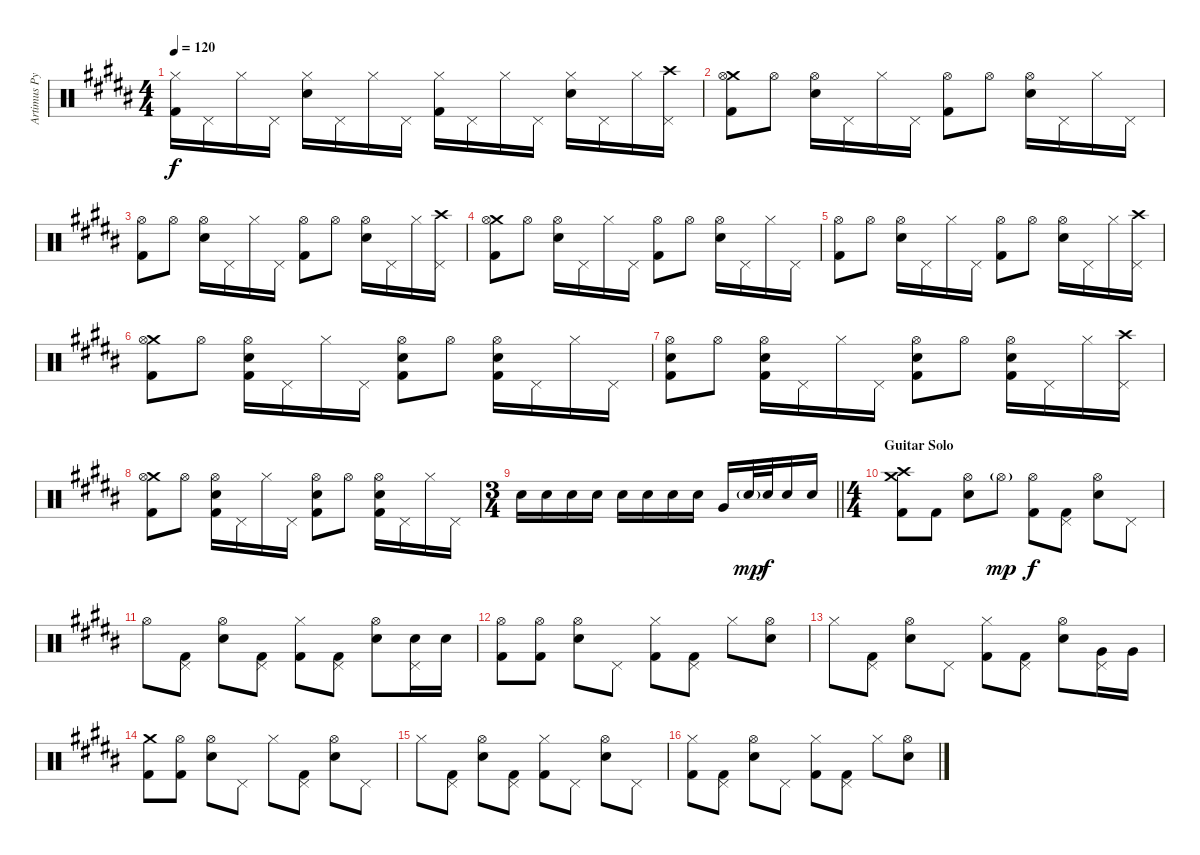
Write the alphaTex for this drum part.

\track ("Artimus Pyle - Drums" "Artimus Py") {instrument percussion}
\staff {score}
\articulation defaults
\ts (4 4)
\tempo 120
\clef neutral
\ks b
("Hi-Hat (closed)" "Kick (hit) 2").16{dy f} "Pedal Hi-Hat (hit)".16 "Hi-Hat (closed)".16 "Pedal Hi-Hat (hit)".16 ("Snare (hit) 2" "Hi-Hat (closed)").16 "Pedal Hi-Hat (hit)".16 "Hi-Hat (closed)".16 "Pedal Hi-Hat (hit)".16 ("Hi-Hat (closed)" "Kick (hit) 2").16 "Pedal Hi-Hat (hit)".16 "Hi-Hat (closed)".16 "Pedal Hi-Hat (hit)".16 ("Snare (hit) 2" "Hi-Hat (closed)").16 "Pedal Hi-Hat (hit)".16 "Hi-Hat (closed)".16 ("Crash high (hit)" "Pedal Hi-Hat (hit)").16 |
("Crash medium (hit)" "Hi-Hat (open)" "Kick (hit) 2").8 "Hi-Hat (open)".8 ("Snare (hit) 2" "Hi-Hat (open)").16 "Pedal Hi-Hat (hit)".16 "Hi-Hat (closed)".16 "Pedal Hi-Hat (hit)".16 ("Hi-Hat (open)" "Kick (hit) 2").8 "Hi-Hat (open)".8 ("Snare (hit) 2" "Hi-Hat (open)").16 "Pedal Hi-Hat (hit)".16 "Hi-Hat (closed)".16 "Pedal Hi-Hat (hit)".16 |
("Hi-Hat (open)" "Kick (hit) 2").8 "Hi-Hat (open)".8 ("Snare (hit) 2" "Hi-Hat (open)").16 "Pedal Hi-Hat (hit)".16 "Hi-Hat (closed)".16 "Pedal Hi-Hat (hit)".16 ("Hi-Hat (open)" "Kick (hit) 2").8 "Hi-Hat (open)".8 ("Snare (hit) 2" "Hi-Hat (open)").16 "Pedal Hi-Hat (hit)".16 "Hi-Hat (closed)".16 ("Crash high (hit)" "Pedal Hi-Hat (hit)").16 |
("Crash medium (hit)" "Hi-Hat (open)" "Kick (hit) 2").8 "Hi-Hat (open)".8 ("Snare (hit) 2" "Hi-Hat (open)").16 "Pedal Hi-Hat (hit)".16 "Hi-Hat (closed)".16 "Pedal Hi-Hat (hit)".16 ("Hi-Hat (open)" "Kick (hit) 2").8 "Hi-Hat (open)".8 ("Snare (hit) 2" "Hi-Hat (open)").16 "Pedal Hi-Hat (hit)".16 "Hi-Hat (closed)".16 "Pedal Hi-Hat (hit)".16 |
("Hi-Hat (open)" "Kick (hit) 2").8 "Hi-Hat (open)".8 ("Snare (hit) 2" "Hi-Hat (open)").16 "Pedal Hi-Hat (hit)".16 "Hi-Hat (closed)".16 "Pedal Hi-Hat (hit)".16 ("Hi-Hat (open)" "Kick (hit) 2").8 "Hi-Hat (open)".8 ("Snare (hit) 2" "Hi-Hat (open)").16 "Pedal Hi-Hat (hit)".16 "Hi-Hat (closed)".16 ("Crash high (hit)" "Pedal Hi-Hat (hit)").16 |
("Crash medium (hit)" "Hi-Hat (open)" "Kick (hit) 2").8 "Hi-Hat (open)".8 ("Snare (hit) 2" "Hi-Hat (open)" "Kick (hit) 2").16 "Pedal Hi-Hat (hit)".16 "Hi-Hat (closed)".16 "Pedal Hi-Hat (hit)".16 ("Snare (hit) 2" "Hi-Hat (open)" "Kick (hit) 2").8 "Hi-Hat (open)".8 ("Snare (hit) 2" "Hi-Hat (open)" "Kick (hit) 2").16 "Pedal Hi-Hat (hit)".16 "Hi-Hat (closed)".16 "Pedal Hi-Hat (hit)".16 |
("Snare (hit) 2" "Hi-Hat (open)" "Kick (hit) 2").8 "Hi-Hat (open)".8 ("Snare (hit) 2" "Hi-Hat (open)" "Kick (hit) 2").16 "Pedal Hi-Hat (hit)".16 "Hi-Hat (closed)".16 "Pedal Hi-Hat (hit)".16 ("Snare (hit) 2" "Hi-Hat (open)" "Kick (hit) 2").8 "Hi-Hat (open)".8 ("Snare (hit) 2" "Hi-Hat (open)" "Kick (hit) 2").16 "Pedal Hi-Hat (hit)".16 "Hi-Hat (closed)".16 ("Crash high (hit)" "Pedal Hi-Hat (hit)").16 |
("Crash medium (hit)" "Hi-Hat (open)" "Kick (hit) 2").8 "Hi-Hat (open)".8 ("Snare (hit) 2" "Hi-Hat (open)" "Kick (hit) 2").16 "Pedal Hi-Hat (hit)".16 "Hi-Hat (closed)".16 "Pedal Hi-Hat (hit)".16 ("Snare (hit) 2" "Hi-Hat (open)" "Kick (hit) 2").8 "Hi-Hat (open)".8 ("Snare (hit) 2" "Hi-Hat (open)" "Kick (hit) 2").16 "Pedal Hi-Hat (hit)".16 "Hi-Hat (closed)".16 "Pedal Hi-Hat (hit)".16 |
\ts (3 4)
\barLineRight lightlight "Snare (hit) 2".16 "Snare (hit) 2".16 "Snare (hit) 2".16 "Snare (hit) 2".16 "Snare (hit) 2".16 "Snare (hit) 2".16 "Snare (hit) 2".16 "Snare (hit) 2".16 "Very Low Tom (hit)".16 "Snare (hit) 2"{g}.32{dy mp} "Snare (hit) 2".32{dy f} "Snare (hit) 2".16 "Snare (hit) 2".16
|
\ts (4 4)
\section ("" "Guitar Solo")
("Crash medium (hit)" "Crash high (hit)" "Kick (hit) 2").8 "Kick (hit) 2".8 ("Snare (hit) 2" "Hi-Hat (open)").8 "Hi-Hat (open)"{g}.8{dy mp} ("Hi-Hat (open)" "Kick (hit) 2").8{dy f} ("Pedal Hi-Hat (hit)" "Kick (hit) 2").8 ("Snare (hit) 2" "Hi-Hat (open)").8 "Pedal Hi-Hat (hit)".8 |
"Hi-Hat (open)".8 ("Pedal Hi-Hat (hit)" "Kick (hit) 2").8 ("Snare (hit) 2" "Hi-Hat (open)").8 ("Pedal Hi-Hat (hit)" "Kick (hit) 2").8 ("Hi-Hat (closed)" "Kick (hit) 2").8 ("Pedal Hi-Hat (hit)" "Kick (hit) 2").8 ("Snare (hit) 2" "Hi-Hat (open)").8 ("Snare (hit) 2" "Pedal Hi-Hat (hit)").16 "Snare (hit) 2".16 |
("Hi-Hat (open)" "Kick (hit) 2").8 ("Hi-Hat (open)" "Kick (hit) 2").8 ("Snare (hit) 2" "Hi-Hat (open)").8 "Pedal Hi-Hat (hit)".8 ("Hi-Hat (closed)" "Kick (hit) 2").8 ("Pedal Hi-Hat (hit)" "Kick (hit) 2").8 "Hi-Hat (closed)".8 ("Snare (hit) 2" "Hi-Hat (open)").8 |
"Hi-Hat (closed)".8 ("Pedal Hi-Hat (hit)" "Kick (hit) 2").8 ("Snare (hit) 2" "Hi-Hat (open)").8 "Pedal Hi-Hat (hit)".8 ("Hi-Hat (closed)" "Kick (hit) 2").8 ("Pedal Hi-Hat (hit)" "Kick (hit) 2").8 ("Snare (hit) 2" "Hi-Hat (open)").8 ("Very Low Tom (hit)" "Pedal Hi-Hat (hit)").16 "Very Low Tom (hit)".16 |
("Crash medium (hit)" "Kick (hit) 2").8 ("Hi-Hat (open)" "Kick (hit) 2").8 ("Snare (hit) 2" "Hi-Hat (open)").8 "Pedal Hi-Hat (hit)".8 "Hi-Hat (closed)".8 ("Pedal Hi-Hat (hit)" "Kick (hit) 2").8 ("Snare (hit) 2" "Hi-Hat (open)").8 "Pedal Hi-Hat (hit)".8 |
"Hi-Hat (closed)".8 ("Pedal Hi-Hat (hit)" "Kick (hit) 2").8 ("Snare (hit) 2" "Hi-Hat (open)").8 ("Pedal Hi-Hat (hit)" "Kick (hit) 2").8 ("Hi-Hat (closed)" "Kick (hit) 2").8 "Pedal Hi-Hat (hit)".8 ("Snare (hit) 2" "Hi-Hat (open)").8 "Pedal Hi-Hat (hit)".8 |
("Hi-Hat (closed)" "Kick (hit) 2").8 ("Pedal Hi-Hat (hit)" "Kick (hit) 2").8 ("Snare (hit) 2" "Hi-Hat (open)").8 "Pedal Hi-Hat (hit)".8 ("Hi-Hat (closed)" "Kick (hit) 2").8 ("Pedal Hi-Hat (hit)" "Kick (hit) 2").8 "Hi-Hat (closed)".8 ("Snare (hit) 2" "Hi-Hat (open)").8
